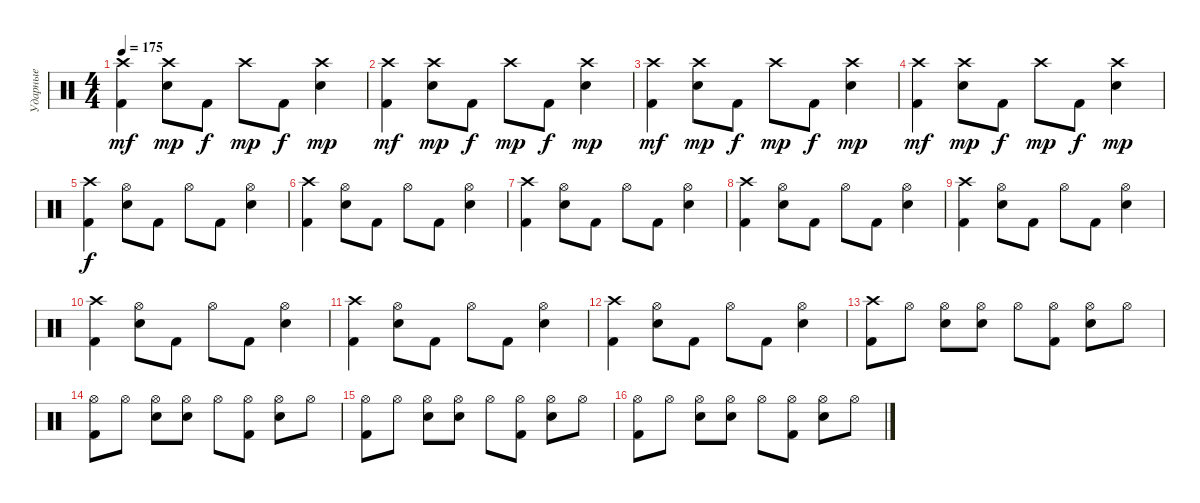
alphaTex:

\track ("Ударные" "Ударные") {instrument percussion}
\staff {score}
\articulation defaults
\ts (4 4)
\tempo 175
\clef neutral
\ks c
("Crash high (hit)" "Kick (hit) 2").4{dy mf} ("Crash high (hit)" "Electric Snare (hit)").8{dy mp} "Kick (hit) 2".8{dy f} "Crash high (hit)".8{dy mp} "Kick (hit) 2".8{dy f} ("Crash high (hit)" "Electric Snare (hit)").4{dy mp} |
("Crash high (hit)" "Kick (hit) 2").4{dy mf} ("Crash high (hit)" "Electric Snare (hit)").8{dy mp} "Kick (hit) 2".8{dy f} "Crash high (hit)".8{dy mp} "Kick (hit) 2".8{dy f} ("Crash high (hit)" "Electric Snare (hit)").4{dy mp} |
("Crash high (hit)" "Kick (hit) 2").4{dy mf} ("Crash high (hit)" "Electric Snare (hit)").8{dy mp} "Kick (hit) 2".8{dy f} "Crash high (hit)".8{dy mp} "Kick (hit) 2".8{dy f} ("Crash high (hit)" "Electric Snare (hit)").4{dy mp} |
("Crash high (hit)" "Kick (hit) 2").4{dy mf} ("Crash high (hit)" "Electric Snare (hit)").8{dy mp} "Kick (hit) 2".8{dy f} "Crash high (hit)".8{dy mp} "Kick (hit) 2".8{dy f} ("Crash high (hit)" "Electric Snare (hit)").4{dy mp} |
("Crash high (hit)" "Kick (hit) 2").4{dy f} ("Hi-Hat (open)" "Electric Snare (hit)").8 "Kick (hit) 2".8 "Hi-Hat (open)".8 "Kick (hit) 2".8 ("Hi-Hat (open)" "Electric Snare (hit)").4 |
("Crash high (hit)" "Kick (hit) 2").4 ("Hi-Hat (open)" "Electric Snare (hit)").8 "Kick (hit) 2".8 "Hi-Hat (open)".8 "Kick (hit) 2".8 ("Hi-Hat (open)" "Electric Snare (hit)").4 |
("Crash high (hit)" "Kick (hit) 2").4 ("Hi-Hat (open)" "Electric Snare (hit)").8 "Kick (hit) 2".8 "Hi-Hat (open)".8 "Kick (hit) 2".8 ("Hi-Hat (open)" "Electric Snare (hit)").4 |
("Crash high (hit)" "Kick (hit) 2").4 ("Hi-Hat (open)" "Electric Snare (hit)").8 "Kick (hit) 2".8 "Hi-Hat (open)".8 "Kick (hit) 2".8 ("Hi-Hat (open)" "Electric Snare (hit)").4 |
("Crash high (hit)" "Kick (hit) 2").4 ("Hi-Hat (open)" "Electric Snare (hit)").8 "Kick (hit) 2".8 "Hi-Hat (open)".8 "Kick (hit) 2".8 ("Hi-Hat (open)" "Electric Snare (hit)").4 |
("Crash high (hit)" "Kick (hit) 2").4 ("Hi-Hat (open)" "Electric Snare (hit)").8 "Kick (hit) 2".8 "Hi-Hat (open)".8 "Kick (hit) 2".8 ("Hi-Hat (open)" "Electric Snare (hit)").4 |
("Crash high (hit)" "Kick (hit) 2").4 ("Hi-Hat (open)" "Electric Snare (hit)").8 "Kick (hit) 2".8 "Hi-Hat (open)".8 "Kick (hit) 2".8 ("Hi-Hat (open)" "Electric Snare (hit)").4 |
("Crash high (hit)" "Kick (hit) 2").4 ("Hi-Hat (open)" "Electric Snare (hit)").8 "Kick (hit) 2".8 "Hi-Hat (open)".8 "Kick (hit) 2".8 ("Hi-Hat (open)" "Electric Snare (hit)").4 |
("Crash high (hit)" "Kick (hit) 2").8 "Hi-Hat (open)".8 ("Hi-Hat (open)" "Electric Snare (hit)").8 ("Hi-Hat (open)" "Electric Snare (hit)").8 "Hi-Hat (open)".8 ("Hi-Hat (open)" "Kick (hit) 2").8 ("Hi-Hat (open)" "Electric Snare (hit)").8 "Hi-Hat (open)".8 |
("Hi-Hat (open)" "Kick (hit) 2").8 "Hi-Hat (open)".8 ("Hi-Hat (open)" "Electric Snare (hit)").8 ("Hi-Hat (open)" "Electric Snare (hit)").8 "Hi-Hat (open)".8 ("Hi-Hat (open)" "Kick (hit) 2").8 ("Hi-Hat (open)" "Electric Snare (hit)").8 "Hi-Hat (open)".8 |
("Hi-Hat (open)" "Kick (hit) 2").8 "Hi-Hat (open)".8 ("Hi-Hat (open)" "Electric Snare (hit)").8 ("Hi-Hat (open)" "Electric Snare (hit)").8 "Hi-Hat (open)".8 ("Hi-Hat (open)" "Kick (hit) 2").8 ("Hi-Hat (open)" "Electric Snare (hit)").8 "Hi-Hat (open)".8 |
("Hi-Hat (open)" "Kick (hit) 2").8 "Hi-Hat (open)".8 ("Hi-Hat (open)" "Electric Snare (hit)").8 ("Hi-Hat (open)" "Electric Snare (hit)").8 "Hi-Hat (open)".8 ("Hi-Hat (open)" "Kick (hit) 2").8 ("Hi-Hat (open)" "Electric Snare (hit)").8 "Hi-Hat (open)".8
